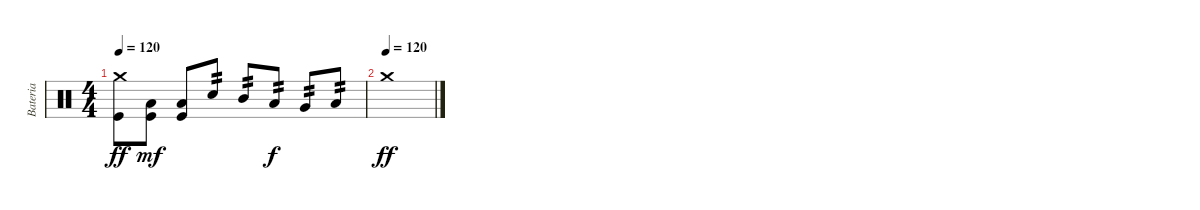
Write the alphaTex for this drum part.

\track ("Bateria" "Bateria") {instrument percussion}
\staff {score}
\articulation defaults
\ts (4 4)
\tempo 120
\clef neutral
\ks c
("Kick (hit)" "Crash medium (hit)").8{dy ff} ("Low Floor Tom (hit)" "Kick (hit)").8{dy mf} ("Low Floor Tom (hit)" "Kick (hit)").8 "Electric Snare (hit)".8{tp 2} "Mid Tom (hit)".8{tp 2} "Low Tom (hit)".8{tp 2 dy f} "Very Low Tom (hit)".8{tp 2} "Low Floor Tom (hit)".8{tp 2} |
\tempo (120)
"Crash medium (hit)".1{dy ff}
